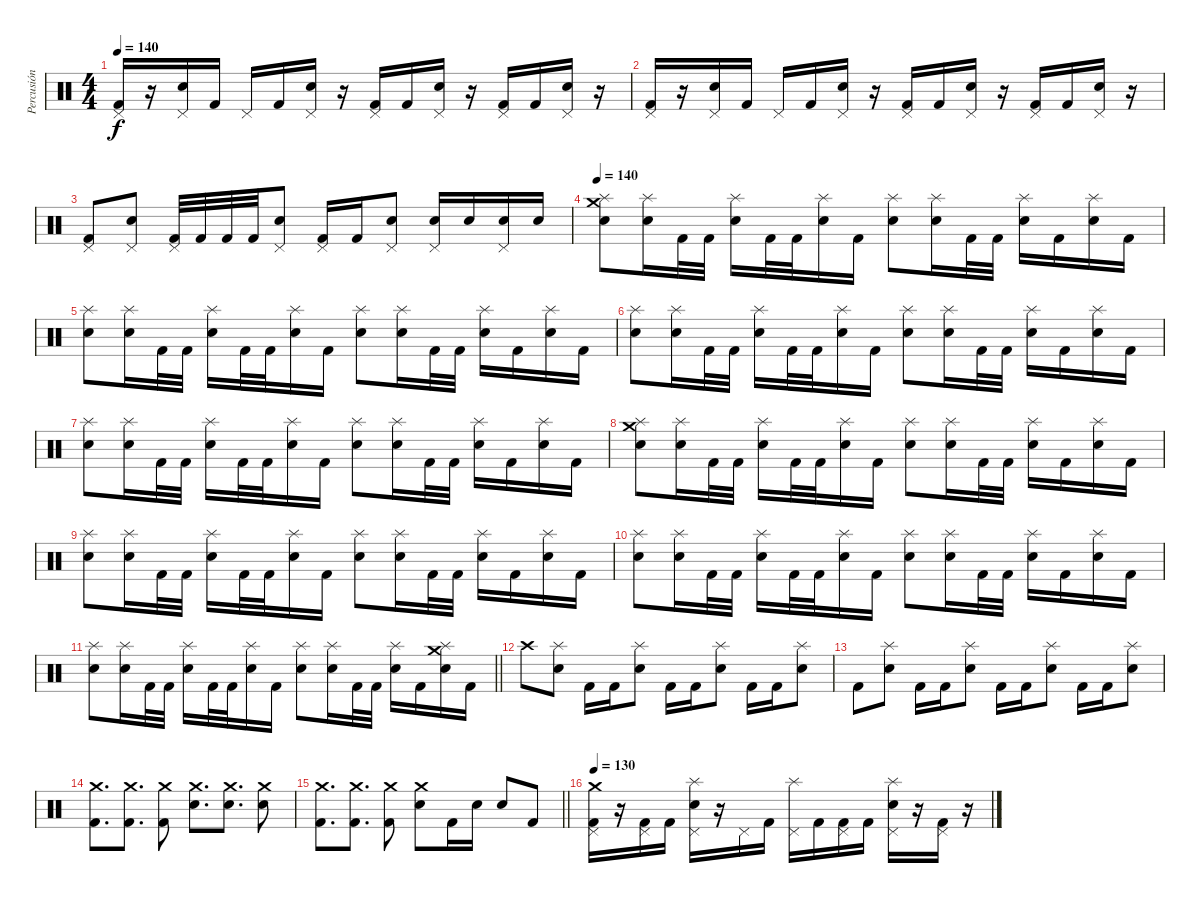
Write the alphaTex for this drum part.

\track ("Percusión" "Percusión") {instrument percussion}
\staff {score}
\articulation defaults
\ts (4 4)
\tempo 140
\clef neutral
\ks c
("Pedal Hi-Hat (hit)" "Kick (hit) 2").16{dy f} r.16 ("Pedal Hi-Hat (hit)" "Electric Snare (hit)").16 "Kick (hit) 2".16 "Pedal Hi-Hat (hit)".16 "Kick (hit) 2".16 ("Pedal Hi-Hat (hit)" "Electric Snare (hit)").16 r.16 ("Pedal Hi-Hat (hit)" "Kick (hit) 2").16 "Kick (hit) 2".16 ("Pedal Hi-Hat (hit)" "Electric Snare (hit)").16 r.16 ("Pedal Hi-Hat (hit)" "Kick (hit) 2").16 "Kick (hit) 2".16 ("Pedal Hi-Hat (hit)" "Electric Snare (hit)").16 r.16 |
("Pedal Hi-Hat (hit)" "Kick (hit) 2").16 r.16 ("Pedal Hi-Hat (hit)" "Electric Snare (hit)").16 "Kick (hit) 2".16 "Pedal Hi-Hat (hit)".16 "Kick (hit) 2".16 ("Pedal Hi-Hat (hit)" "Electric Snare (hit)").16 r.16 ("Pedal Hi-Hat (hit)" "Kick (hit) 2").16 "Kick (hit) 2".16 ("Pedal Hi-Hat (hit)" "Electric Snare (hit)").16 r.16 ("Pedal Hi-Hat (hit)" "Kick (hit) 2").16 "Kick (hit) 2".16 ("Pedal Hi-Hat (hit)" "Electric Snare (hit)").16 r.16 |
("Pedal Hi-Hat (hit)" "Kick (hit) 2").8 ("Pedal Hi-Hat (hit)" "Electric Snare (hit)").8 ("Pedal Hi-Hat (hit)" "Kick (hit) 2").32 "Kick (hit) 2".32 "Kick (hit) 2".32 "Kick (hit) 2".32 ("Pedal Hi-Hat (hit)" "Electric Snare (hit)").8 ("Pedal Hi-Hat (hit)" "Kick (hit) 2").16 "Kick (hit) 2".16 ("Pedal Hi-Hat (hit)" "Electric Snare (hit)").8 ("Pedal Hi-Hat (hit)" "Electric Snare (hit)").16 "Electric Snare (hit)".16 ("Pedal Hi-Hat (hit)" "Electric Snare (hit)").16 "Electric Snare (hit)".16 |
\tempo 140
("Crash medium (hit)" "Splash (hit)" "Electric Snare (hit)").8 ("Splash (hit)" "Electric Snare (hit)").16 "Kick (hit) 2".32 "Kick (hit) 2".32 ("Splash (hit)" "Electric Snare (hit)").16 "Kick (hit) 2".32 "Kick (hit) 2".32 ("Splash (hit)" "Electric Snare (hit)").16 "Kick (hit) 2".16 ("Splash (hit)" "Electric Snare (hit)").8 ("Splash (hit)" "Electric Snare (hit)").16 "Kick (hit) 2".32 "Kick (hit) 2".32 ("Splash (hit)" "Electric Snare (hit)").16 "Kick (hit) 2".16 ("Splash (hit)" "Electric Snare (hit)").16 "Kick (hit) 2".16 |
("Splash (hit)" "Electric Snare (hit)").8 ("Splash (hit)" "Electric Snare (hit)").16 "Kick (hit) 2".32 "Kick (hit) 2".32 ("Splash (hit)" "Electric Snare (hit)").16 "Kick (hit) 2".32 "Kick (hit) 2".32 ("Splash (hit)" "Electric Snare (hit)").16 "Kick (hit) 2".16 ("Splash (hit)" "Electric Snare (hit)").8 ("Splash (hit)" "Electric Snare (hit)").16 "Kick (hit) 2".32 "Kick (hit) 2".32 ("Splash (hit)" "Electric Snare (hit)").16 "Kick (hit) 2".16 ("Splash (hit)" "Electric Snare (hit)").16 "Kick (hit) 2".16 |
("Splash (hit)" "Electric Snare (hit)").8 ("Splash (hit)" "Electric Snare (hit)").16 "Kick (hit) 2".32 "Kick (hit) 2".32 ("Splash (hit)" "Electric Snare (hit)").16 "Kick (hit) 2".32 "Kick (hit) 2".32 ("Splash (hit)" "Electric Snare (hit)").16 "Kick (hit) 2".16 ("Splash (hit)" "Electric Snare (hit)").8 ("Splash (hit)" "Electric Snare (hit)").16 "Kick (hit) 2".32 "Kick (hit) 2".32 ("Splash (hit)" "Electric Snare (hit)").16 "Kick (hit) 2".16 ("Splash (hit)" "Electric Snare (hit)").16 "Kick (hit) 2".16 |
("Splash (hit)" "Electric Snare (hit)").8 ("Splash (hit)" "Electric Snare (hit)").16 "Kick (hit) 2".32 "Kick (hit) 2".32 ("Splash (hit)" "Electric Snare (hit)").16 "Kick (hit) 2".32 "Kick (hit) 2".32 ("Splash (hit)" "Electric Snare (hit)").16 "Kick (hit) 2".16 ("Splash (hit)" "Electric Snare (hit)").8 ("Splash (hit)" "Electric Snare (hit)").16 "Kick (hit) 2".32 "Kick (hit) 2".32 ("Splash (hit)" "Electric Snare (hit)").16 "Kick (hit) 2".16 ("Splash (hit)" "Electric Snare (hit)").16 "Kick (hit) 2".16 |
("Crash medium (hit)" "Splash (hit)" "Electric Snare (hit)").8 ("Splash (hit)" "Electric Snare (hit)").16 "Kick (hit) 2".32 "Kick (hit) 2".32 ("Splash (hit)" "Electric Snare (hit)").16 "Kick (hit) 2".32 "Kick (hit) 2".32 ("Splash (hit)" "Electric Snare (hit)").16 "Kick (hit) 2".16 ("Splash (hit)" "Electric Snare (hit)").8 ("Splash (hit)" "Electric Snare (hit)").16 "Kick (hit) 2".32 "Kick (hit) 2".32 ("Splash (hit)" "Electric Snare (hit)").16 "Kick (hit) 2".16 ("Splash (hit)" "Electric Snare (hit)").16 "Kick (hit) 2".16 |
("Splash (hit)" "Electric Snare (hit)").8 ("Splash (hit)" "Electric Snare (hit)").16 "Kick (hit) 2".32 "Kick (hit) 2".32 ("Splash (hit)" "Electric Snare (hit)").16 "Kick (hit) 2".32 "Kick (hit) 2".32 ("Splash (hit)" "Electric Snare (hit)").16 "Kick (hit) 2".16 ("Splash (hit)" "Electric Snare (hit)").8 ("Splash (hit)" "Electric Snare (hit)").16 "Kick (hit) 2".32 "Kick (hit) 2".32 ("Splash (hit)" "Electric Snare (hit)").16 "Kick (hit) 2".16 ("Splash (hit)" "Electric Snare (hit)").16 "Kick (hit) 2".16 |
("Splash (hit)" "Electric Snare (hit)").8 ("Splash (hit)" "Electric Snare (hit)").16 "Kick (hit) 2".32 "Kick (hit) 2".32 ("Splash (hit)" "Electric Snare (hit)").16 "Kick (hit) 2".32 "Kick (hit) 2".32 ("Splash (hit)" "Electric Snare (hit)").16 "Kick (hit) 2".16 ("Splash (hit)" "Electric Snare (hit)").8 ("Splash (hit)" "Electric Snare (hit)").16 "Kick (hit) 2".32 "Kick (hit) 2".32 ("Splash (hit)" "Electric Snare (hit)").16 "Kick (hit) 2".16 ("Splash (hit)" "Electric Snare (hit)").16 "Kick (hit) 2".16 |
\barLineRight lightlight
("Splash (hit)" "Electric Snare (hit)").8 ("Splash (hit)" "Electric Snare (hit)").16 "Kick (hit) 2".32 "Kick (hit) 2".32 ("Splash (hit)" "Electric Snare (hit)").16 "Kick (hit) 2".32 "Kick (hit) 2".32 ("Splash (hit)" "Electric Snare (hit)").16 "Kick (hit) 2".16 ("Splash (hit)" "Electric Snare (hit)").8 ("Splash (hit)" "Electric Snare (hit)").16 "Kick (hit) 2".32 "Kick (hit) 2".32 ("Splash (hit)" "Electric Snare (hit)").16 "Kick (hit) 2".16 ("Crash medium (hit)" "Splash (hit)" "Electric Snare (hit)").16 "Kick (hit) 2".16 |
"Crash high (hit)".8 ("Splash (hit)" "Electric Snare (hit)").8 "Kick (hit) 2".16 "Kick (hit) 2".16 ("Splash (hit)" "Electric Snare (hit)").8 "Kick (hit) 2".16 "Kick (hit) 2".16 ("Splash (hit)" "Electric Snare (hit)").8 "Kick (hit) 2".16 "Kick (hit) 2".16 ("Splash (hit)" "Electric Snare (hit)").8 |
"Kick (hit) 2".8 ("Splash (hit)" "Electric Snare (hit)").8 "Kick (hit) 2".16 "Kick (hit) 2".16 ("Splash (hit)" "Electric Snare (hit)").8 "Kick (hit) 2".16 "Kick (hit) 2".16 ("Splash (hit)" "Electric Snare (hit)").8 "Kick (hit) 2".16 "Kick (hit) 2".16 ("Splash (hit)" "Electric Snare (hit)").8 |
("Crash medium (hit)" "Kick (hit) 2").8{d} ("Crash medium (hit)" "Kick (hit) 2").8{d} ("Crash medium (hit)" "Kick (hit) 2").8 ("Crash medium (hit)" "Electric Snare (hit)").8{d} ("Crash medium (hit)" "Electric Snare (hit)").8{d} ("Crash medium (hit)" "Electric Snare (hit)").8 |
\barLineRight lightlight
("Crash medium (hit)" "Kick (hit) 2").8{d} ("Crash medium (hit)" "Kick (hit) 2").8{d} ("Crash medium (hit)" "Kick (hit) 2").8 ("Crash medium (hit)" "Electric Snare (hit)").8 "Kick (hit) 2".16 "Electric Snare (hit)".16 "Electric Snare (hit)".8 "Kick (hit) 2".8 |
\tempo 130
("Pedal Hi-Hat (hit)" "Crash medium (hit)" "Kick (hit) 2").16 r.16 ("Pedal Hi-Hat (hit)" "Kick (hit) 2").16 "Kick (hit) 2".16 ("Splash (hit)" "Pedal Hi-Hat (hit)" "Electric Snare (hit)").16 r.16 "Pedal Hi-Hat (hit)".16 "Kick (hit) 2".16 ("Splash (hit)" "Pedal Hi-Hat (hit)").16 "Kick (hit) 2".16 ("Pedal Hi-Hat (hit)" "Kick (hit) 2").16 "Kick (hit) 2".16 ("Splash (hit)" "Pedal Hi-Hat (hit)" "Electric Snare (hit)").16 r.16 ("Pedal Hi-Hat (hit)" "Kick (hit) 2").16 r.16
